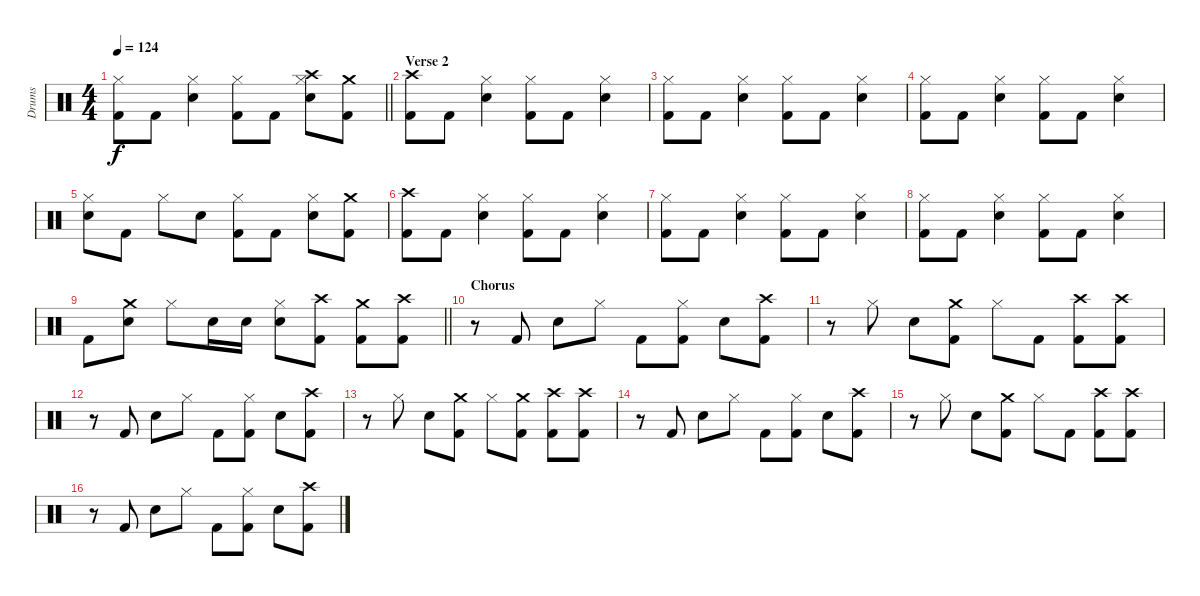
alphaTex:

\track ("Drums" "Drums") {instrument percussion}
\staff {score}
\articulation defaults
\ts (4 4)
\tempo 124
\clef neutral
\barLineRight lightlight
\ks c
("Kick (hit) 2" "Hi-Hat (closed)").8{dy f} "Kick (hit) 2".8 ("Snare (hit) 2" "Hi-Hat (closed)").4 ("Kick (hit) 2" "Hi-Hat (closed)").8 "Kick (hit) 2".8 ("Snare (hit) 2" "Hi-Hat (closed)" "Crash high (hit)").8 ("Kick (hit) 2" "Crash medium (hit)").8 |
\section ("" "Verse 2")
("Kick (hit) 2" "Crash high (hit)").8 "Kick (hit) 2".8 ("Snare (hit) 2" "Hi-Hat (closed)").4 ("Kick (hit) 2" "Hi-Hat (closed)").8 "Kick (hit) 2".8 ("Snare (hit) 2" "Hi-Hat (closed)").4 |
("Kick (hit) 2" "Hi-Hat (closed)").8 "Kick (hit) 2".8 ("Snare (hit) 2" "Hi-Hat (closed)").4 ("Kick (hit) 2" "Hi-Hat (closed)").8 "Kick (hit) 2".8 ("Snare (hit) 2" "Hi-Hat (closed)").4 |
("Kick (hit) 2" "Hi-Hat (closed)").8 "Kick (hit) 2".8 ("Snare (hit) 2" "Hi-Hat (closed)").4 ("Kick (hit) 2" "Hi-Hat (closed)").8 "Kick (hit) 2".8 ("Snare (hit) 2" "Hi-Hat (closed)").4 |
("Snare (hit) 2" "Hi-Hat (closed)").8 "Kick (hit) 2".8 "Hi-Hat (closed)".8 "Snare (hit) 2".8 ("Kick (hit) 2" "Hi-Hat (closed)").8 "Kick (hit) 2".8 ("Snare (hit) 2" "Hi-Hat (closed)").8 ("Kick (hit) 2" "Crash medium (hit)").8 |
("Kick (hit) 2" "Crash high (hit)").8 "Kick (hit) 2".8 ("Snare (hit) 2" "Hi-Hat (closed)").4 ("Kick (hit) 2" "Hi-Hat (closed)").8 "Kick (hit) 2".8 ("Snare (hit) 2" "Hi-Hat (closed)").4 |
("Kick (hit) 2" "Hi-Hat (closed)").8 "Kick (hit) 2".8 ("Snare (hit) 2" "Hi-Hat (closed)").4 ("Kick (hit) 2" "Hi-Hat (closed)").8 "Kick (hit) 2".8 ("Snare (hit) 2" "Hi-Hat (closed)").4 |
("Kick (hit) 2" "Hi-Hat (closed)").8 "Kick (hit) 2".8 ("Snare (hit) 2" "Hi-Hat (closed)").4 ("Kick (hit) 2" "Hi-Hat (closed)").8 "Kick (hit) 2".8 ("Snare (hit) 2" "Hi-Hat (closed)").4 |
\barLineRight lightlight "Kick (hit) 2".8
("Snare (hit) 2" "Crash medium (hit)").8 "Hi-Hat (closed)".8 "Snare (hit) 2".16 "Snare (hit) 2".16 ("Snare (hit) 2" "Hi-Hat (closed)").8 ("Kick (hit) 2" "Crash high (hit)").8 ("Kick (hit) 2" "Crash medium (hit)").8 ("Kick (hit) 2" "Crash high (hit)").8 |
\section ("" "Chorus")
r.8 "Kick (hit) 2".8 "Snare (hit) 2".8 "Hi-Hat (closed)".8 "Kick (hit) 2".8 ("Kick (hit) 2" "Hi-Hat (closed)").8 "Snare (hit) 2".8 ("Kick (hit) 2" "Crash high (hit)").8 |
r.8 "Hi-Hat (closed)".8 "Snare (hit) 2".8 ("Kick (hit) 2" "Crash medium (hit)").8 "Hi-Hat (closed)".8 "Kick (hit) 2".8 ("Kick (hit) 2" "Crash high (hit)").8 ("Kick (hit) 2" "Crash high (hit)").8 |
r.8 "Kick (hit) 2".8 "Snare (hit) 2".8 "Hi-Hat (closed)".8 "Kick (hit) 2".8 ("Kick (hit) 2" "Hi-Hat (closed)").8 "Snare (hit) 2".8 ("Kick (hit) 2" "Crash high (hit)").8 |
r.8 "Hi-Hat (closed)".8 "Snare (hit) 2".8 ("Kick (hit) 2" "Crash medium (hit)").8 "Hi-Hat (closed)".8 ("Kick (hit) 2" "Crash medium (hit)").8 ("Kick (hit) 2" "Crash high (hit)").8 ("Kick (hit) 2" "Crash high (hit)").8 |
r.8 "Kick (hit) 2".8 "Snare (hit) 2".8 "Hi-Hat (closed)".8 "Kick (hit) 2".8 ("Kick (hit) 2" "Hi-Hat (closed)").8 "Snare (hit) 2".8 ("Kick (hit) 2" "Crash high (hit)").8 |
r.8 "Hi-Hat (closed)".8 "Snare (hit) 2".8 ("Kick (hit) 2" "Crash medium (hit)").8 "Hi-Hat (closed)".8 "Kick (hit) 2".8 ("Kick (hit) 2" "Crash high (hit)").8 ("Kick (hit) 2" "Crash high (hit)").8 |
r.8 "Kick (hit) 2".8 "Snare (hit) 2".8 "Hi-Hat (closed)".8 "Kick (hit) 2".8 ("Kick (hit) 2" "Hi-Hat (closed)").8 "Snare (hit) 2".8 ("Kick (hit) 2" "Crash high (hit)").8
